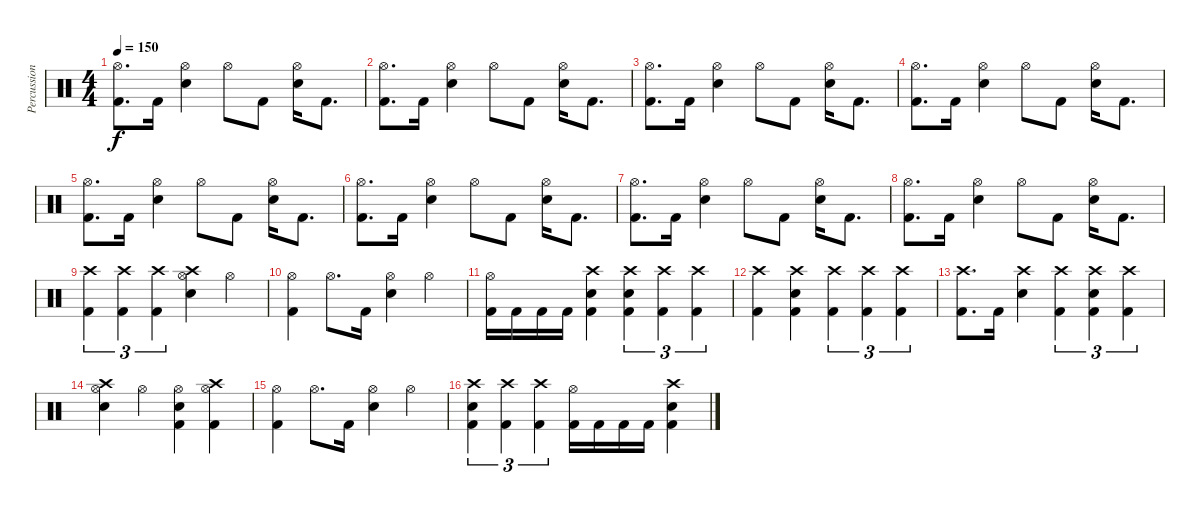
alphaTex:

\track ("Percussion" "Percussion") {instrument percussion}
\staff {score}
\articulation defaults
\ts (4 4)
\tempo 150
\clef neutral
\ks c
("Hi-Hat (open)" "Kick (hit) 2").8{d dy f} "Kick (hit) 2".16 ("Hi-Hat (open)" "Snare (hit) 2").4 "Hi-Hat (open)".8 "Kick (hit) 2".8 ("Hi-Hat (open)" "Snare (hit) 2").16 "Kick (hit) 2".8{d} |
("Hi-Hat (open)" "Kick (hit) 2").8{d} "Kick (hit) 2".16 ("Hi-Hat (open)" "Snare (hit) 2").4 "Hi-Hat (open)".8 "Kick (hit) 2".8 ("Hi-Hat (open)" "Snare (hit) 2").16 "Kick (hit) 2".8{d} |
("Hi-Hat (open)" "Kick (hit) 2").8{d} "Kick (hit) 2".16 ("Hi-Hat (open)" "Snare (hit) 2").4 "Hi-Hat (open)".8 "Kick (hit) 2".8 ("Hi-Hat (open)" "Snare (hit) 2").16 "Kick (hit) 2".8{d} |
("Hi-Hat (open)" "Kick (hit) 2").8{d} "Kick (hit) 2".16 ("Hi-Hat (open)" "Snare (hit) 2").4 "Hi-Hat (open)".8 "Kick (hit) 2".8 ("Hi-Hat (open)" "Snare (hit) 2").16 "Kick (hit) 2".8{d} |
("Hi-Hat (open)" "Kick (hit) 2").8{d} "Kick (hit) 2".16 ("Hi-Hat (open)" "Snare (hit) 2").4 "Hi-Hat (open)".8 "Kick (hit) 2".8 ("Hi-Hat (open)" "Snare (hit) 2").16 "Kick (hit) 2".8{d} |
("Hi-Hat (open)" "Kick (hit) 2").8{d} "Kick (hit) 2".16 ("Hi-Hat (open)" "Snare (hit) 2").4 "Hi-Hat (open)".8 "Kick (hit) 2".8 ("Hi-Hat (open)" "Snare (hit) 2").16 "Kick (hit) 2".8{d} |
("Hi-Hat (open)" "Kick (hit) 2").8{d} "Kick (hit) 2".16 ("Hi-Hat (open)" "Snare (hit) 2").4 "Hi-Hat (open)".8 "Kick (hit) 2".8 ("Hi-Hat (open)" "Snare (hit) 2").16 "Kick (hit) 2".8{d} |
("Hi-Hat (open)" "Kick (hit) 2").8{d} "Kick (hit) 2".16 ("Hi-Hat (open)" "Snare (hit) 2").4 "Hi-Hat (open)".8 "Kick (hit) 2".8 ("Hi-Hat (open)" "Snare (hit) 2").16 "Kick (hit) 2".8{d} |
("Crash high (hit)" "Kick (hit) 2").4{tu (3 2)} ("Crash high (hit)" "Kick (hit) 2").4{tu (3 2)} ("Crash high (hit)" "Kick (hit) 2").4{tu (3 2)} ("Crash high (hit)" "Hi-Hat (open)" "Snare (hit) 2").4 "Hi-Hat (open)".4 |
("Hi-Hat (open)" "Kick (hit) 2").4 "Hi-Hat (open)".8{d} "Kick (hit) 2".16 ("Hi-Hat (open)" "Snare (hit) 2").4 "Hi-Hat (open)".4 |
("Hi-Hat (open)" "Kick (hit) 2").16 "Kick (hit) 2".16 "Kick (hit) 2".16 "Kick (hit) 2".16 ("Crash high (hit)" "Snare (hit) 2" "Kick (hit) 2").4 ("Crash high (hit)" "Snare (hit) 2" "Kick (hit) 2").4{tu (3 2)} ("Crash high (hit)" "Kick (hit) 2").4{tu (3 2)} ("Crash high (hit)" "Kick (hit) 2").4{tu (3 2)} |
("Crash high (hit)" "Kick (hit) 2").4 ("Crash high (hit)" "Snare (hit) 2" "Kick (hit) 2").4 ("Crash high (hit)" "Kick (hit) 2").4{tu (3 2)} ("Crash high (hit)" "Kick (hit) 2").4{tu (3 2)} ("Crash high (hit)" "Kick (hit) 2").4{tu (3 2)} |
("Crash high (hit)" "Kick (hit) 2").8{d} "Kick (hit) 2".16 ("Crash high (hit)" "Snare (hit) 2").4 ("Crash high (hit)" "Kick (hit) 2").4{tu (3 2)} ("Crash high (hit)" "Snare (hit) 2" "Kick (hit) 2").4{tu (3 2)} ("Crash high (hit)" "Kick (hit) 2").4{tu (3 2)} |
("Crash high (hit)" "Hi-Hat (open)" "Snare (hit) 2").4 "Hi-Hat (open)".4 ("Hi-Hat (open)" "Snare (hit) 2" "Kick (hit) 2").4 ("Crash high (hit)" "Hi-Hat (open)" "Kick (hit) 2").4 |
("Hi-Hat (open)" "Kick (hit) 2").4 "Hi-Hat (open)".8{d} "Kick (hit) 2".16 ("Hi-Hat (open)" "Snare (hit) 2").4 "Hi-Hat (open)".4 |
("Crash high (hit)" "Snare (hit) 2" "Kick (hit) 2").4{tu (3 2)} ("Crash high (hit)" "Kick (hit) 2").4{tu (3 2)} ("Crash high (hit)" "Kick (hit) 2").4{tu (3 2)} ("Hi-Hat (open)" "Kick (hit) 2").16 "Kick (hit) 2".16 "Kick (hit) 2".16 "Kick (hit) 2".16 ("Crash high (hit)" "Snare (hit) 2" "Kick (hit) 2").4
